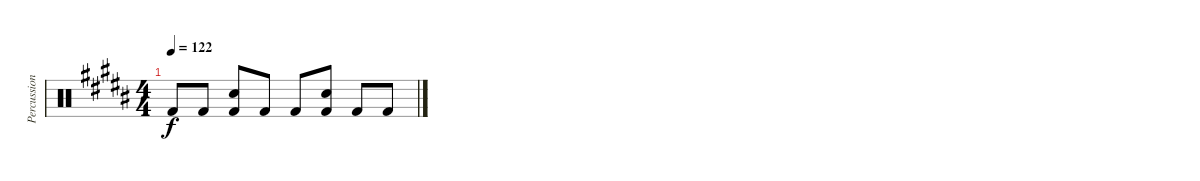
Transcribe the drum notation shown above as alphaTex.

\track ("Percussion" "Percussion") {instrument percussion}
\staff {score}
\articulation defaults
\ts (4 4)
\tempo 122
\clef neutral
\ks b "Kick (hit) 2".8{dy f} "Kick (hit) 2".8
("Kick (hit) 2" "Snare (hit) 2").8 "Kick (hit) 2".8 "Kick (hit) 2".8 ("Kick (hit) 2" "Snare (hit) 2").8 "Kick (hit) 2".8 "Kick (hit) 2".8
